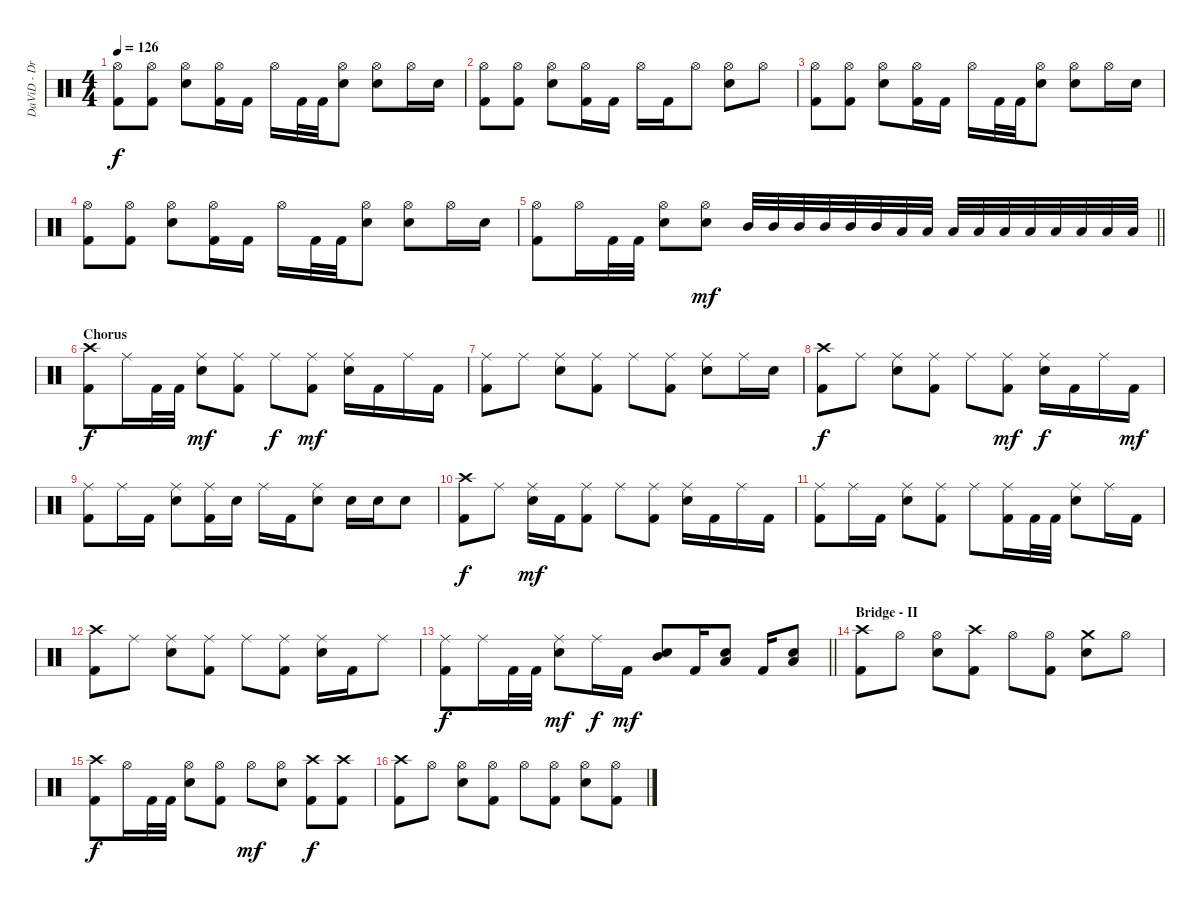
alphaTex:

\track ("DaViD - DruMzZ" "DaViD - Dr") {instrument percussion}
\staff {score}
\articulation defaults
\ts (4 4)
\tempo 126
\clef neutral
\ks c
("Hi-Hat (open)" "Kick (hit) 2").8{dy f} ("Hi-Hat (open)" "Kick (hit) 2").8 ("Hi-Hat (open)" "Snare (hit) 2").8 ("Hi-Hat (open)" "Kick (hit) 2").16 "Kick (hit) 2".16 "Hi-Hat (open)".16 "Kick (hit) 2".32 "Kick (hit) 2".32 ("Hi-Hat (open)" "Snare (hit) 2").8 ("Hi-Hat (open)" "Snare (hit) 2").8 "Hi-Hat (open)".16 "Snare (hit) 2".16 |
("Hi-Hat (open)" "Kick (hit) 2").8 ("Hi-Hat (open)" "Kick (hit) 2").8 ("Hi-Hat (open)" "Snare (hit) 2").8 ("Hi-Hat (open)" "Kick (hit) 2").16 "Kick (hit) 2".16 "Hi-Hat (open)".16 "Kick (hit) 2".16 "Hi-Hat (open)".8 ("Hi-Hat (open)" "Snare (hit) 2").8 "Hi-Hat (open)".8 |
("Hi-Hat (open)" "Kick (hit) 2").8 ("Hi-Hat (open)" "Kick (hit) 2").8 ("Hi-Hat (open)" "Snare (hit) 2").8 ("Hi-Hat (open)" "Kick (hit) 2").16 "Kick (hit) 2".16 "Hi-Hat (open)".16 "Kick (hit) 2".32 "Kick (hit) 2".32 ("Hi-Hat (open)" "Snare (hit) 2").8 ("Hi-Hat (open)" "Snare (hit) 2").8 "Hi-Hat (open)".16 "Snare (hit) 2".16 |
("Hi-Hat (open)" "Kick (hit) 2").8 ("Hi-Hat (open)" "Kick (hit) 2").8 ("Hi-Hat (open)" "Snare (hit) 2").8 ("Hi-Hat (open)" "Kick (hit) 2").16 "Kick (hit) 2".16 "Hi-Hat (open)".16 "Kick (hit) 2".32 "Kick (hit) 2".32 ("Hi-Hat (open)" "Snare (hit) 2").8 ("Hi-Hat (open)" "Snare (hit) 2").8 "Hi-Hat (open)".16 "Snare (hit) 2".16 |
\barLineRight lightlight
("Hi-Hat (open)" "Kick (hit) 2").8 "Hi-Hat (open)".16 "Kick (hit) 2".32 "Kick (hit) 2".32 ("Hi-Hat (open)" "Snare (hit) 2").8 ("Hi-Hat (open)" "Snare (hit) 2").8{dy mf} "Mid Tom (hit)".32 "Mid Tom (hit)".32 "Mid Tom (hit)".32 "Mid Tom (hit)".32 "Mid Tom (hit)".32 "Mid Tom (hit)".32 "Low Tom (hit)".32 "Low Tom (hit)".32 "Low Tom (hit)".32 "Low Tom (hit)".32 "Low Tom (hit)".32 "Low Tom (hit)".32 "Low Floor Tom (hit)".32 "Low Floor Tom (hit)".32 "Low Floor Tom (hit)".32 "Low Floor Tom (hit)".32 |
\section ("" "Chorus")
("Crash high (hit)" "Kick (hit) 2").8{dy f} "Ride (middle)".16 "Kick (hit) 2".32 "Kick (hit) 2".32 ("Ride (middle)" "Snare (hit) 2").8{dy mf} ("Ride (middle)" "Kick (hit) 2").8 "Ride (middle)".8{dy f} ("Ride (middle)" "Kick (hit) 2").8{dy mf} ("Ride (middle)" "Snare (hit) 2").16 "Kick (hit) 2".16 "Ride (middle)".16 "Kick (hit) 2".16 |
("Ride (middle)" "Kick (hit) 2").8 "Ride (middle)".8 ("Ride (middle)" "Snare (hit) 2").8 ("Ride (middle)" "Kick (hit) 2").8 "Ride (middle)".8 ("Ride (middle)" "Kick (hit) 2").8 ("Ride (middle)" "Snare (hit) 2").8 "Ride (middle)".16 "Snare (hit) 2".16 |
("Crash high (hit)" "Kick (hit) 2").8{dy f} "Ride (middle)".8 ("Ride (middle)" "Snare (hit) 2").8 ("Ride (middle)" "Kick (hit) 2").8 "Ride (middle)".8 ("Ride (middle)" "Kick (hit) 2").8{dy mf} ("Ride (middle)" "Snare (hit) 2").16{dy f} "Kick (hit) 2".16 "Ride (middle)".16 "Kick (hit) 2".16{dy mf} |
("Ride (middle)" "Kick (hit) 2").8 "Ride (middle)".16 "Kick (hit) 2".16 ("Ride (middle)" "Snare (hit) 2").8 ("Ride (middle)" "Kick (hit) 2").16 "Snare (hit) 2".16 "Ride (middle)".16 "Kick (hit) 2".16 ("Ride (middle)" "Snare (hit) 2").8 "Snare (hit) 2".16 "Snare (hit) 2".16 "Snare (hit) 2".8 |
("Crash high (hit)" "Kick (hit) 2").8{dy f} "Ride (middle)".8 ("Ride (middle)" "Snare (hit) 2").16{dy mf} "Kick (hit) 2".16 ("Ride (middle)" "Kick (hit) 2").8 "Ride (middle)".8 ("Ride (middle)" "Kick (hit) 2").8 ("Ride (middle)" "Snare (hit) 2").16 "Kick (hit) 2".16 "Ride (middle)".16 "Kick (hit) 2".16 |
("Ride (middle)" "Kick (hit) 2").8 "Ride (middle)".16 "Kick (hit) 2".16 ("Ride (middle)" "Snare (hit) 2").8 ("Ride (middle)" "Kick (hit) 2").8 "Ride (middle)".8 ("Ride (middle)" "Kick (hit) 2").16 "Kick (hit) 2".32 "Kick (hit) 2".32 ("Ride (middle)" "Snare (hit) 2").8 "Ride (middle)".16 "Kick (hit) 2".16 |
("Crash high (hit)" "Kick (hit) 2").8 "Ride (middle)".8 ("Ride (middle)" "Snare (hit) 2").8 ("Ride (middle)" "Kick (hit) 2").8 "Ride (middle)".8 ("Ride (middle)" "Kick (hit) 2").8 ("Ride (middle)" "Snare (hit) 2").16 "Kick (hit) 2".16 "Ride (middle)".8 |
\barLineRight lightlight
("Ride (middle)" "Kick (hit) 2").8{dy f} "Ride (middle)".16 "Kick (hit) 2".32 "Kick (hit) 2".32 ("Ride (middle)" "Snare (hit) 2").8{dy mf} "Ride (middle)".16{dy f} "Kick (hit) 2".16{dy mf} ("Snare (hit) 2" "Mid Tom (hit)").8 "Kick (hit) 2".16 ("Snare (hit) 2" "Low Tom (hit)").8 "Kick (hit) 2".16 ("Snare (hit) 2" "Low Floor Tom (hit)").8 |
\section ("" "Bridge - II")
("Crash high (hit)" "Kick (hit) 2").8 "Hi-Hat (open)".8 ("Hi-Hat (open)" "Snare (hit) 2").8 ("Crash high (hit)" "Kick (hit) 2").8 "Hi-Hat (open)".8 ("Hi-Hat (open)" "Kick (hit) 2").8 ("Crash medium (hit)" "Snare (hit) 2").8 "Hi-Hat (open)".8 |
("Crash high (hit)" "Kick (hit) 2").8{dy f} "Hi-Hat (open)".16 "Kick (hit) 2".32 "Kick (hit) 2".32 ("Hi-Hat (open)" "Snare (hit) 2").8 ("Hi-Hat (open)" "Kick (hit) 2").8 "Hi-Hat (open)".8{dy mf} ("Hi-Hat (open)" "Snare (hit) 2").8 ("Crash high (hit)" "Kick (hit) 2").8{dy f} ("Crash high (hit)" "Kick (hit) 2").8 |
("Crash high (hit)" "Kick (hit) 2").8 "Hi-Hat (open)".8 ("Hi-Hat (open)" "Snare (hit) 2").8 ("Hi-Hat (open)" "Kick (hit) 2").8 "Hi-Hat (open)".8 ("Hi-Hat (open)" "Kick (hit) 2").8 ("Hi-Hat (open)" "Snare (hit) 2").8 ("Hi-Hat (open)" "Kick (hit) 2").8
